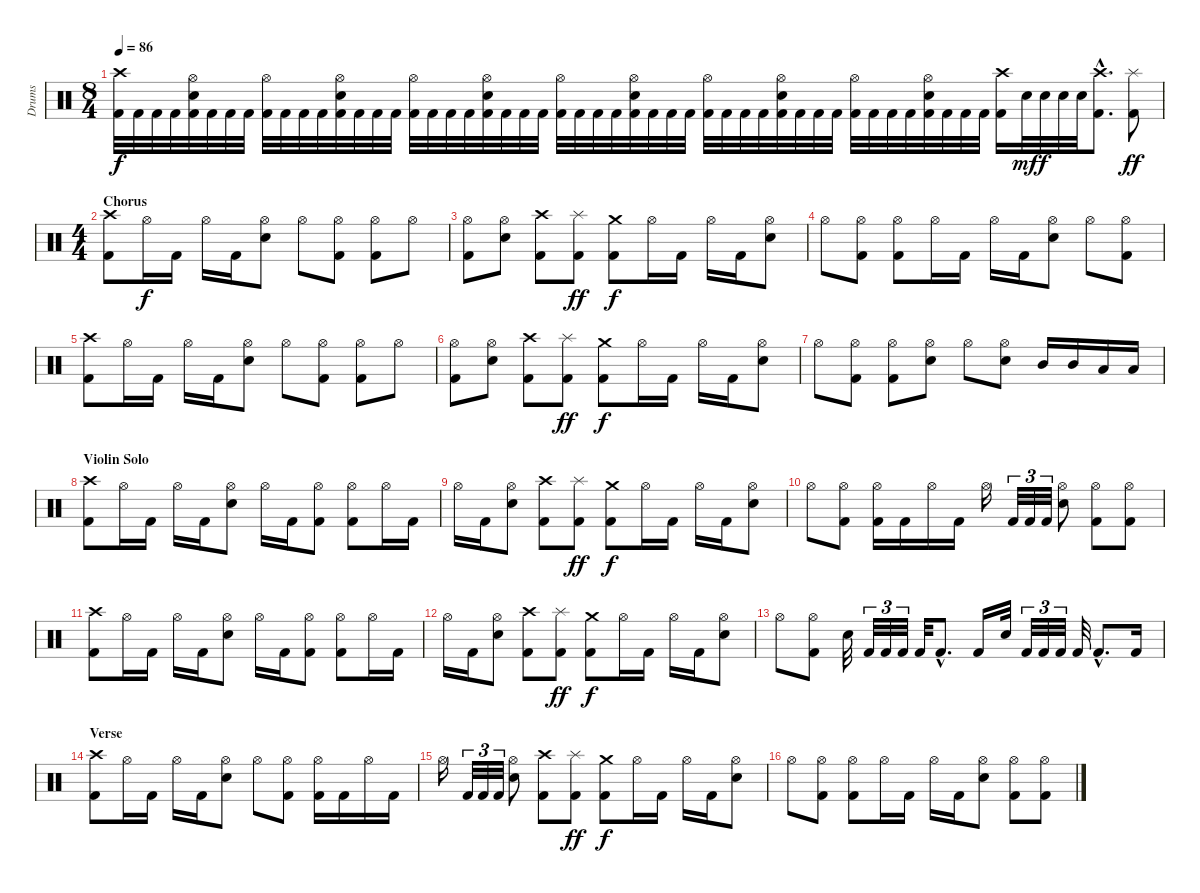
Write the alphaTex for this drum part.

\track ("Drums" "Drums") {instrument percussion}
\staff {score}
\articulation defaults
\ts (8 4)
\tempo 86
\clef neutral
\ks c
("Crash high (hit)" "Kick (hit) 2").32{dy f} "Kick (hit) 2".32 "Kick (hit) 2".32 "Kick (hit) 2".32 ("Hi-Hat (open)" "Electric Snare (hit)" "Kick (hit) 2").32 "Kick (hit) 2".32 "Kick (hit) 2".32 "Kick (hit) 2".32 ("Hi-Hat (open)" "Kick (hit) 2").32 "Kick (hit) 2".32 "Kick (hit) 2".32 "Kick (hit) 2".32 ("Hi-Hat (open)" "Electric Snare (hit)" "Kick (hit) 2").32 "Kick (hit) 2".32 "Kick (hit) 2".32 "Kick (hit) 2".32 ("Hi-Hat (open)" "Kick (hit) 2").32 "Kick (hit) 2".32 "Kick (hit) 2".32 "Kick (hit) 2".32 ("Hi-Hat (open)" "Electric Snare (hit)" "Kick (hit) 2").32 "Kick (hit) 2".32 "Kick (hit) 2".32 "Kick (hit) 2".32 ("Hi-Hat (open)" "Kick (hit) 2").32 "Kick (hit) 2".32 "Kick (hit) 2".32 "Kick (hit) 2".32 ("Hi-Hat (open)" "Electric Snare (hit)" "Kick (hit) 2").32 "Kick (hit) 2".32 "Kick (hit) 2".32 "Kick (hit) 2".32 ("Hi-Hat (open)" "Kick (hit) 2").32 "Kick (hit) 2".32 "Kick (hit) 2".32 "Kick (hit) 2".32 ("Hi-Hat (open)" "Electric Snare (hit)" "Kick (hit) 2").32 "Kick (hit) 2".32 "Kick (hit) 2".32 "Kick (hit) 2".32 ("Hi-Hat (open)" "Kick (hit) 2").32 "Kick (hit) 2".32 "Kick (hit) 2".32 "Kick (hit) 2".32 ("Hi-Hat (open)" "Electric Snare (hit)" "Kick (hit) 2").32 "Kick (hit) 2".32 "Kick (hit) 2".32 "Kick (hit) 2".32 ("Crash high (hit)" "Kick (hit) 2").16 "Electric Snare (hit)".32{dy mf} "Electric Snare (hit)".32{dy f} "Electric Snare (hit)".32 "Electric Snare (hit)".32 ("Crash high (hit)"{hac} "Kick (hit) 2"{hac}).8{d} ("Splash (hit)" "Kick (hit) 2").8{dy ff} |
\ts (4 4)
\section ("" "Chorus")
("Crash high (hit)" "Kick (hit) 2").8 "Hi-Hat (open)".16{dy f} "Kick (hit) 2".16 "Hi-Hat (open)".16 "Kick (hit) 2".16 ("Hi-Hat (open)" "Electric Snare (hit)").8 "Hi-Hat (open)".8 ("Hi-Hat (open)" "Kick (hit) 2").8 ("Hi-Hat (open)" "Kick (hit) 2").8 "Hi-Hat (open)".8 |
("Hi-Hat (open)" "Kick (hit) 2").8 ("Hi-Hat (open)" "Electric Snare (hit)").8 ("Crash high (hit)" "Kick (hit) 2").8 ("Splash (hit)" "Kick (hit) 2").8{dy ff} ("Crash medium (hit)" "Kick (hit) 2").8{dy f} "Hi-Hat (open)".16 "Kick (hit) 2".16 "Hi-Hat (open)".16 "Kick (hit) 2".16 ("Hi-Hat (open)" "Electric Snare (hit)").8 |
"Hi-Hat (open)".8 ("Hi-Hat (open)" "Kick (hit) 2").8 ("Hi-Hat (open)" "Kick (hit) 2").8 "Hi-Hat (open)".16 "Kick (hit) 2".16 "Hi-Hat (open)".16 "Kick (hit) 2".16 ("Hi-Hat (open)" "Electric Snare (hit)").8 "Hi-Hat (open)".8 ("Hi-Hat (open)" "Kick (hit) 2").8 |
("Crash high (hit)" "Kick (hit) 2").8 "Hi-Hat (open)".16 "Kick (hit) 2".16 "Hi-Hat (open)".16 "Kick (hit) 2".16 ("Hi-Hat (open)" "Electric Snare (hit)").8 "Hi-Hat (open)".8 ("Hi-Hat (open)" "Kick (hit) 2").8 ("Hi-Hat (open)" "Kick (hit) 2").8 "Hi-Hat (open)".8 |
("Hi-Hat (open)" "Kick (hit) 2").8 ("Hi-Hat (open)" "Electric Snare (hit)").8 ("Crash high (hit)" "Kick (hit) 2").8 ("Splash (hit)" "Kick (hit) 2").8{dy ff} ("Crash medium (hit)" "Kick (hit) 2").8{dy f} "Hi-Hat (open)".16 "Kick (hit) 2".16 "Hi-Hat (open)".16 "Kick (hit) 2".16 ("Hi-Hat (open)" "Electric Snare (hit)").8 |
"Hi-Hat (open)".8 ("Hi-Hat (open)" "Kick (hit) 2").8 ("Hi-Hat (open)" "Kick (hit) 2").8 ("Hi-Hat (open)" "Electric Snare (hit)").8 "Hi-Hat (open)".8 ("Hi-Hat (open)" "Electric Snare (hit)").8 "Mid Tom (hit)".16 "Mid Tom (hit)".16 "Low Tom (hit)".16 "Low Tom (hit)".16 |
\section ("" "Violin Solo")
("Crash high (hit)" "Kick (hit) 2").8 "Hi-Hat (open)".16 "Kick (hit) 2".16 "Hi-Hat (open)".16 "Kick (hit) 2".16 ("Hi-Hat (open)" "Electric Snare (hit)").8 "Hi-Hat (open)".16 "Kick (hit) 2".16 ("Hi-Hat (open)" "Kick (hit) 2").8 ("Hi-Hat (open)" "Kick (hit) 2").8 "Hi-Hat (open)".16 "Kick (hit) 2".16 |
"Hi-Hat (open)".16 "Kick (hit) 2".16 ("Hi-Hat (open)" "Electric Snare (hit)").8 ("Crash high (hit)" "Kick (hit) 2").8 ("Splash (hit)" "Kick (hit) 2").8{dy ff} ("Crash medium (hit)" "Kick (hit) 2").8{dy f} "Hi-Hat (open)".16 "Kick (hit) 2".16 "Hi-Hat (open)".16 "Kick (hit) 2".16 ("Hi-Hat (open)" "Electric Snare (hit)").8 |
"Hi-Hat (open)".8 ("Hi-Hat (open)" "Kick (hit) 2").8 ("Hi-Hat (open)" "Kick (hit) 2").16 "Kick (hit) 2".16 "Hi-Hat (open)".16 "Kick (hit) 2".16 "Hi-Hat (open)".16 "Kick (hit) 2".32{tu (3 2)} "Kick (hit) 2".32{tu (3 2)} "Kick (hit) 2".32{tu (3 2)} ("Hi-Hat (open)" "Electric Snare (hit)").8 ("Hi-Hat (open)" "Kick (hit) 2").8 ("Hi-Hat (open)" "Kick (hit) 2").8 |
("Crash high (hit)" "Kick (hit) 2").8 "Hi-Hat (open)".16 "Kick (hit) 2".16 "Hi-Hat (open)".16 "Kick (hit) 2".16 ("Hi-Hat (open)" "Electric Snare (hit)").8 "Hi-Hat (open)".16 "Kick (hit) 2".16 ("Hi-Hat (open)" "Kick (hit) 2").8 ("Hi-Hat (open)" "Kick (hit) 2").8 "Hi-Hat (open)".16 "Kick (hit) 2".16 |
"Hi-Hat (open)".16 "Kick (hit) 2".16 ("Hi-Hat (open)" "Electric Snare (hit)").8 ("Crash high (hit)" "Kick (hit) 2").8 ("Splash (hit)" "Kick (hit) 2").8{dy ff} ("Crash medium (hit)" "Kick (hit) 2").8{dy f} "Hi-Hat (open)".16 "Kick (hit) 2".16 "Hi-Hat (open)".16 "Kick (hit) 2".16 ("Hi-Hat (open)" "Electric Snare (hit)").8 |
"Hi-Hat (open)".8 ("Hi-Hat (open)" "Kick (hit) 2").8 "Electric Snare (hit)".32 "Kick (hit) 2".32{tu (3 2)} "Kick (hit) 2".32{tu (3 2)} "Kick (hit) 2".32{tu (3 2)} "Kick (hit) 2".32 "Kick (hit) 2"{hac}.8{d} "Kick (hit) 2".16 "Electric Snare (hit)".32 "Kick (hit) 2".32{tu (3 2)} "Kick (hit) 2".32{tu (3 2)} "Kick (hit) 2".32{tu (3 2)} "Kick (hit) 2".32 "Kick (hit) 2"{hac}.8{d} "Kick (hit) 2".16 |
\section ("" "Verse")
("Crash high (hit)" "Kick (hit) 2").8 "Hi-Hat (open)".16 "Kick (hit) 2".16 "Hi-Hat (open)".16 "Kick (hit) 2".16 ("Hi-Hat (open)" "Electric Snare (hit)").8 "Hi-Hat (open)".8 ("Hi-Hat (open)" "Kick (hit) 2").8 ("Hi-Hat (open)" "Kick (hit) 2").16 "Kick (hit) 2".16 "Hi-Hat (open)".16 "Kick (hit) 2".16 |
"Hi-Hat (open)".16 "Kick (hit) 2".32{tu (3 2)} "Kick (hit) 2".32{tu (3 2)} "Kick (hit) 2".32{tu (3 2)} ("Hi-Hat (open)" "Electric Snare (hit)").8 ("Crash high (hit)" "Kick (hit) 2").8 ("Splash (hit)" "Kick (hit) 2").8{dy ff} ("Crash medium (hit)" "Kick (hit) 2").8{dy f} "Hi-Hat (open)".16 "Kick (hit) 2".16 "Hi-Hat (open)".16 "Kick (hit) 2".16 ("Hi-Hat (open)" "Electric Snare (hit)").8 |
"Hi-Hat (open)".8 ("Hi-Hat (open)" "Kick (hit) 2").8 ("Hi-Hat (open)" "Kick (hit) 2").8 "Hi-Hat (open)".16 "Kick (hit) 2".16 "Hi-Hat (open)".16 "Kick (hit) 2".16 ("Hi-Hat (open)" "Electric Snare (hit)").8 ("Hi-Hat (open)" "Kick (hit) 2").8 ("Hi-Hat (open)" "Kick (hit) 2").8
